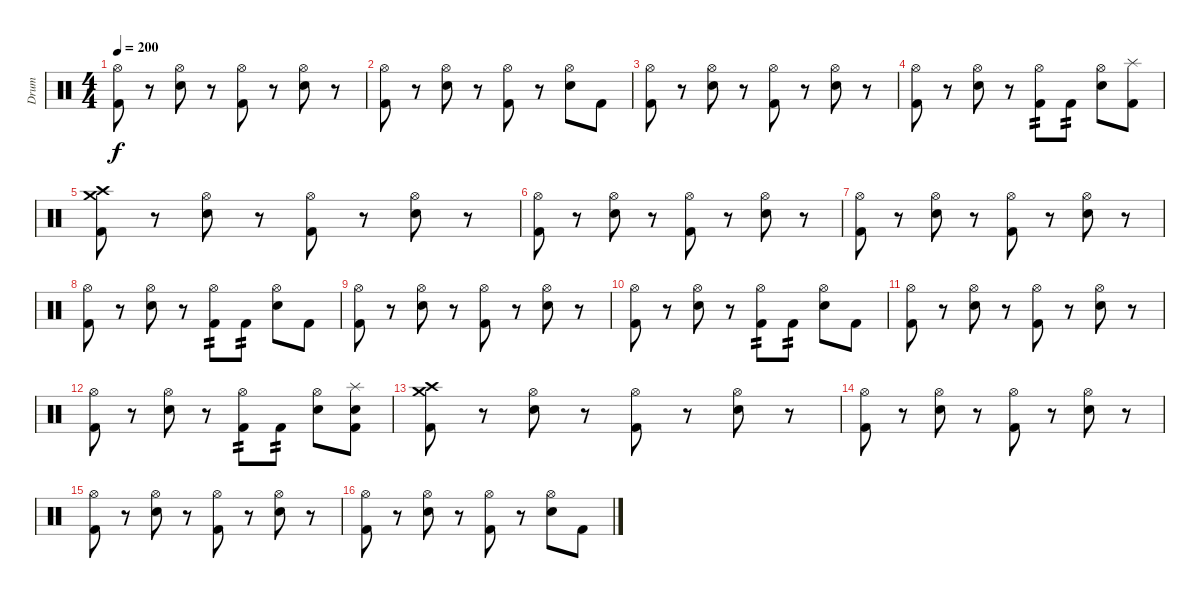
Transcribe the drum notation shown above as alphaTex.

\track ("Drum" "Drum") {instrument percussion}
\staff {score}
\articulation defaults
\ts (4 4)
\tempo 200
\clef neutral
\ks c
("Hi-Hat (open)" "Kick (hit) 2").8{dy f} r.8 ("Hi-Hat (open)" "Snare (hit) 2").8 r.8 ("Hi-Hat (open)" "Kick (hit) 2").8 r.8 ("Hi-Hat (open)" "Snare (hit) 2").8 r.8 |
("Hi-Hat (open)" "Kick (hit) 2").8 r.8 ("Hi-Hat (open)" "Snare (hit) 2").8 r.8 ("Hi-Hat (open)" "Kick (hit) 2").8 r.8 ("Hi-Hat (open)" "Snare (hit) 2").8 "Kick (hit) 2".8 |
("Hi-Hat (open)" "Kick (hit) 2").8 r.8 ("Hi-Hat (open)" "Snare (hit) 2").8 r.8 ("Hi-Hat (open)" "Kick (hit) 2").8 r.8 ("Hi-Hat (open)" "Snare (hit) 2").8 r.8 |
("Hi-Hat (open)" "Kick (hit) 2").8 r.8 ("Hi-Hat (open)" "Snare (hit) 2").8 r.8 ("Hi-Hat (open)" "Kick (hit) 2").8{tp 2} "Kick (hit) 2".8{tp 2} ("Hi-Hat (open)" "Snare (hit) 2").8 ("Splash (hit)" "Kick (hit) 2").8 |
("Crash high (hit)" "Crash medium (hit)" "Kick (hit) 2").8 r.8 ("Hi-Hat (open)" "Snare (hit) 2").8 r.8 ("Hi-Hat (open)" "Kick (hit) 2").8 r.8 ("Hi-Hat (open)" "Snare (hit) 2").8 r.8 |
("Hi-Hat (open)" "Kick (hit) 2").8 r.8 ("Hi-Hat (open)" "Snare (hit) 2").8 r.8 ("Hi-Hat (open)" "Kick (hit) 2").8 r.8 ("Hi-Hat (open)" "Snare (hit) 2").8 r.8 |
("Hi-Hat (open)" "Kick (hit) 2").8 r.8 ("Hi-Hat (open)" "Snare (hit) 2").8 r.8 ("Hi-Hat (open)" "Kick (hit) 2").8 r.8 ("Hi-Hat (open)" "Snare (hit) 2").8 r.8 |
("Hi-Hat (open)" "Kick (hit) 2").8 r.8 ("Hi-Hat (open)" "Snare (hit) 2").8 r.8 ("Hi-Hat (open)" "Kick (hit) 2").8{tp 2} "Kick (hit) 2".8{tp 2} ("Hi-Hat (open)" "Snare (hit) 2").8 "Kick (hit) 2".8 |
("Hi-Hat (open)" "Kick (hit) 2").8 r.8 ("Hi-Hat (open)" "Snare (hit) 2").8 r.8 ("Hi-Hat (open)" "Kick (hit) 2").8 r.8 ("Hi-Hat (open)" "Snare (hit) 2").8 r.8 |
("Hi-Hat (open)" "Kick (hit) 2").8 r.8 ("Hi-Hat (open)" "Snare (hit) 2").8 r.8 ("Hi-Hat (open)" "Kick (hit) 2").8{tp 2} "Kick (hit) 2".8{tp 2} ("Hi-Hat (open)" "Snare (hit) 2").8 "Kick (hit) 2".8 |
("Hi-Hat (open)" "Kick (hit) 2").8 r.8 ("Hi-Hat (open)" "Snare (hit) 2").8 r.8 ("Hi-Hat (open)" "Kick (hit) 2").8 r.8 ("Hi-Hat (open)" "Snare (hit) 2").8 r.8 |
("Hi-Hat (open)" "Kick (hit) 2").8 r.8 ("Hi-Hat (open)" "Snare (hit) 2").8 r.8 ("Hi-Hat (open)" "Kick (hit) 2").8{tp 2} "Kick (hit) 2".8{tp 2} ("Hi-Hat (open)" "Snare (hit) 2").8 ("Splash (hit)" "Snare (hit) 2" "Kick (hit) 2").8 |
("Crash high (hit)" "Crash medium (hit)" "Kick (hit) 2").8 r.8 ("Hi-Hat (open)" "Snare (hit) 2").8 r.8 ("Hi-Hat (open)" "Kick (hit) 2").8 r.8 ("Hi-Hat (open)" "Snare (hit) 2").8 r.8 |
("Hi-Hat (open)" "Kick (hit) 2").8 r.8 ("Hi-Hat (open)" "Snare (hit) 2").8 r.8 ("Hi-Hat (open)" "Kick (hit) 2").8 r.8 ("Hi-Hat (open)" "Snare (hit) 2").8 r.8 |
("Hi-Hat (open)" "Kick (hit) 2").8 r.8 ("Hi-Hat (open)" "Snare (hit) 2").8 r.8 ("Hi-Hat (open)" "Kick (hit) 2").8 r.8 ("Hi-Hat (open)" "Snare (hit) 2").8 r.8 |
("Hi-Hat (open)" "Kick (hit) 2").8 r.8 ("Hi-Hat (open)" "Snare (hit) 2").8 r.8 ("Hi-Hat (open)" "Kick (hit) 2").8 r.8 ("Hi-Hat (open)" "Snare (hit) 2").8 "Kick (hit) 2".8
